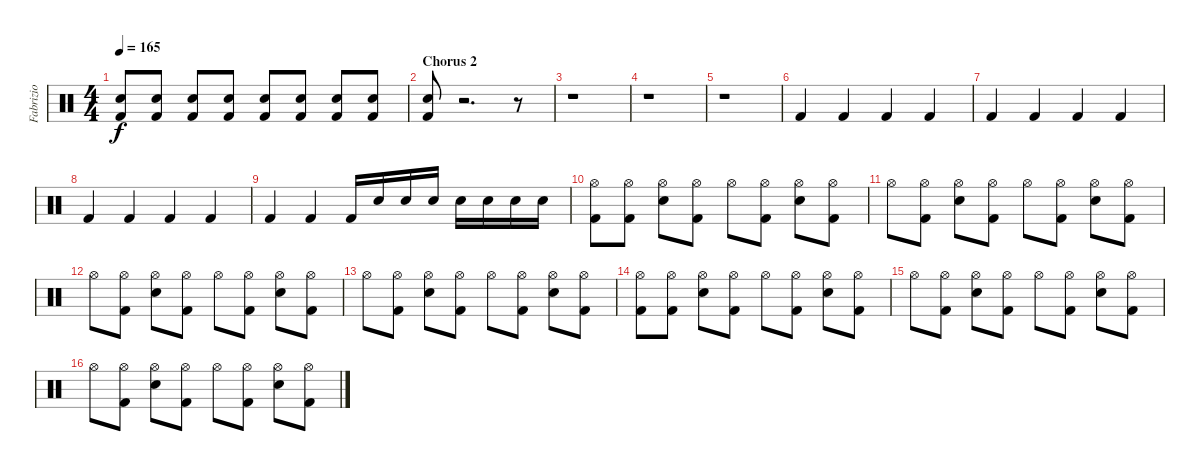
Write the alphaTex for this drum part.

\track ("Fabrizio" "Fabrizio") {instrument percussion}
\staff {score}
\articulation defaults
\ts (4 4)
\tempo 165
\clef neutral
\ks c
("Snare (hit) 2" "Kick (hit) 2").8{dy f} ("Snare (hit) 2" "Kick (hit) 2").8 ("Snare (hit) 2" "Kick (hit) 2").8 ("Snare (hit) 2" "Kick (hit) 2").8 ("Snare (hit) 2" "Kick (hit) 2").8 ("Snare (hit) 2" "Kick (hit) 2").8 ("Snare (hit) 2" "Kick (hit) 2").8 ("Snare (hit) 2" "Kick (hit) 2").8 |
\section ("" "Chorus 2")
("Snare (hit) 2" "Kick (hit) 2").8 r.2{d} r.8 |
r.1 |
r.1 |
r.1 |
"Kick (hit) 2".4 "Kick (hit) 2".4 "Kick (hit) 2".4 "Kick (hit) 2".4 |
"Kick (hit) 2".4 "Kick (hit) 2".4 "Kick (hit) 2".4 "Kick (hit) 2".4 |
"Kick (hit) 2".4 "Kick (hit) 2".4 "Kick (hit) 2".4 "Kick (hit) 2".4 |
"Kick (hit) 2".4 "Kick (hit) 2".4 "Kick (hit) 2".16 "Snare (hit) 2".16 "Snare (hit) 2".16 "Snare (hit) 2".16 "Snare (hit) 2".16 "Snare (hit) 2".16 "Snare (hit) 2".16 "Snare (hit) 2".16 |
("Kick (hit) 2" "Hi-Hat (open)").8 ("Kick (hit) 2" "Hi-Hat (open)").8 ("Snare (hit) 2" "Hi-Hat (open)").8 ("Kick (hit) 2" "Hi-Hat (open)").8 "Hi-Hat (open)".8 ("Kick (hit) 2" "Hi-Hat (open)").8 ("Snare (hit) 2" "Hi-Hat (open)").8 ("Kick (hit) 2" "Hi-Hat (open)").8 |
"Hi-Hat (open)".8 ("Hi-Hat (open)" "Kick (hit) 2").8 ("Hi-Hat (open)" "Snare (hit) 2").8 ("Hi-Hat (open)" "Kick (hit) 2").8 "Hi-Hat (open)".8 ("Hi-Hat (open)" "Kick (hit) 2").8 ("Hi-Hat (open)" "Snare (hit) 2").8 ("Hi-Hat (open)" "Kick (hit) 2").8 |
"Hi-Hat (open)".8 ("Hi-Hat (open)" "Kick (hit) 2").8 ("Hi-Hat (open)" "Snare (hit) 2").8 ("Hi-Hat (open)" "Kick (hit) 2").8 "Hi-Hat (open)".8 ("Hi-Hat (open)" "Kick (hit) 2").8 ("Hi-Hat (open)" "Snare (hit) 2").8 ("Hi-Hat (open)" "Kick (hit) 2").8 |
"Hi-Hat (open)".8 ("Hi-Hat (open)" "Kick (hit) 2").8 ("Hi-Hat (open)" "Snare (hit) 2").8 ("Hi-Hat (open)" "Kick (hit) 2").8 "Hi-Hat (open)".8 ("Hi-Hat (open)" "Kick (hit) 2").8 ("Hi-Hat (open)" "Snare (hit) 2").8 ("Hi-Hat (open)" "Kick (hit) 2").8 |
("Hi-Hat (open)" "Kick (hit) 2").8 ("Hi-Hat (open)" "Kick (hit) 2").8 ("Hi-Hat (open)" "Snare (hit) 2").8 ("Hi-Hat (open)" "Kick (hit) 2").8 "Hi-Hat (open)".8 ("Hi-Hat (open)" "Kick (hit) 2").8 ("Hi-Hat (open)" "Snare (hit) 2").8 ("Hi-Hat (open)" "Kick (hit) 2").8 |
"Hi-Hat (open)".8 ("Hi-Hat (open)" "Kick (hit) 2").8 ("Hi-Hat (open)" "Snare (hit) 2").8 ("Hi-Hat (open)" "Kick (hit) 2").8 "Hi-Hat (open)".8 ("Hi-Hat (open)" "Kick (hit) 2").8 ("Hi-Hat (open)" "Snare (hit) 2").8 ("Hi-Hat (open)" "Kick (hit) 2").8 |
"Hi-Hat (open)".8 ("Hi-Hat (open)" "Kick (hit) 2").8 ("Hi-Hat (open)" "Snare (hit) 2").8 ("Hi-Hat (open)" "Kick (hit) 2").8 "Hi-Hat (open)".8 ("Hi-Hat (open)" "Kick (hit) 2").8 ("Hi-Hat (open)" "Snare (hit) 2").8 ("Hi-Hat (open)" "Kick (hit) 2").8
